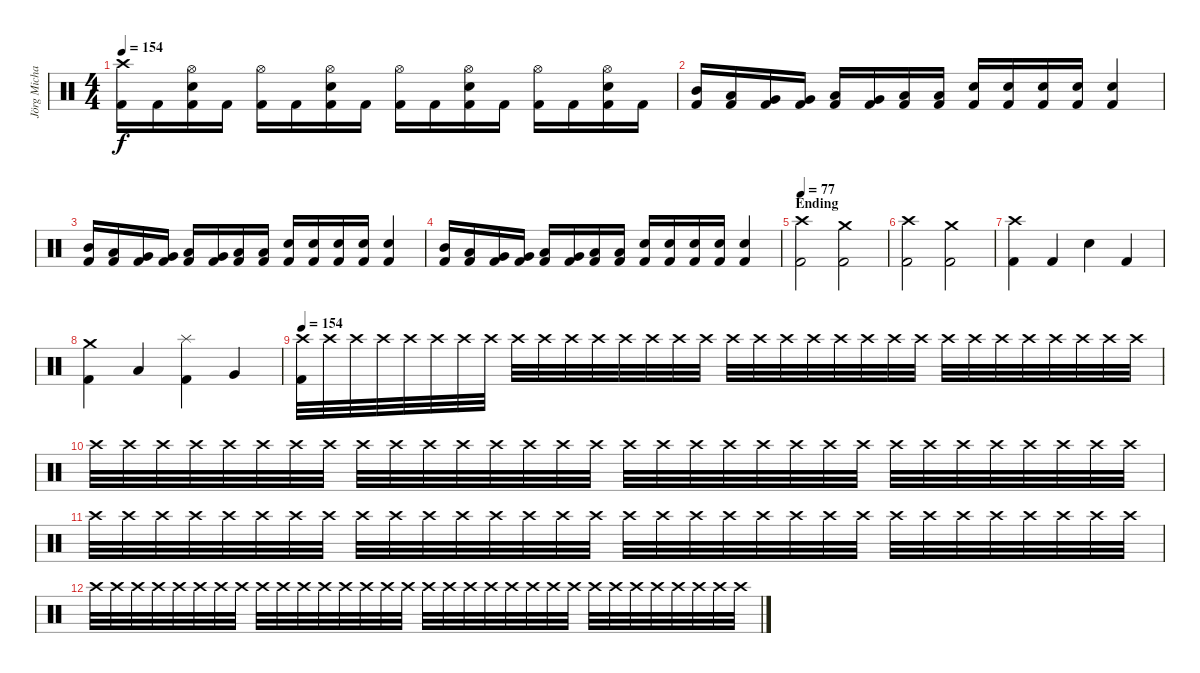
\track ("Jörg Michael - Drums" "Jörg Micha") {instrument percussion}
\staff {score}
\articulation defaults
\ts (4 4)
\tempo 154
\clef neutral
\ks c
("Crash high (hit)" "Kick (hit) 2").16{dy f} "Kick (hit) 2".16 ("Hi-Hat (open)" "Electric Snare (hit)" "Kick (hit) 2").16 "Kick (hit) 2".16 ("Hi-Hat (open)" "Kick (hit) 2").16 "Kick (hit) 2".16 ("Hi-Hat (open)" "Electric Snare (hit)" "Kick (hit) 2").16 "Kick (hit) 2".16 ("Hi-Hat (open)" "Kick (hit) 2").16 "Kick (hit) 2".16 ("Hi-Hat (open)" "Electric Snare (hit)" "Kick (hit) 2").16 "Kick (hit) 2".16 ("Hi-Hat (open)" "Kick (hit) 2").16 "Kick (hit) 2".16 ("Hi-Hat (open)" "Electric Snare (hit)" "Kick (hit) 2").16 "Kick (hit) 2".16 |
("Mid Tom (hit)" "Kick (hit) 2").16 ("Low Tom (hit)" "Kick (hit) 2").16 ("Very Low Tom (hit)" "Kick (hit) 2").16 ("Very Low Tom (hit)" "Kick (hit) 2").16 ("Low Tom (hit)" "Kick (hit) 2").16 ("Very Low Tom (hit)" "Kick (hit) 2").16 ("Low Floor Tom (hit)" "Kick (hit) 2").16 ("Low Floor Tom (hit)" "Kick (hit) 2").16 ("Electric Snare (hit)" "Kick (hit) 2").16 ("Electric Snare (hit)" "Kick (hit) 2").16 ("Electric Snare (hit)" "Kick (hit) 2").16 ("Electric Snare (hit)" "Kick (hit) 2").16 ("Electric Snare (hit)" "Kick (hit) 2").4 |
("Mid Tom (hit)" "Kick (hit) 2").16 ("Low Tom (hit)" "Kick (hit) 2").16 ("Very Low Tom (hit)" "Kick (hit) 2").16 ("Very Low Tom (hit)" "Kick (hit) 2").16 ("Low Tom (hit)" "Kick (hit) 2").16 ("Very Low Tom (hit)" "Kick (hit) 2").16 ("Low Floor Tom (hit)" "Kick (hit) 2").16 ("Low Floor Tom (hit)" "Kick (hit) 2").16 ("Electric Snare (hit)" "Kick (hit) 2").16 ("Electric Snare (hit)" "Kick (hit) 2").16 ("Electric Snare (hit)" "Kick (hit) 2").16 ("Electric Snare (hit)" "Kick (hit) 2").16 ("Electric Snare (hit)" "Kick (hit) 2").4 |
("Mid Tom (hit)" "Kick (hit) 2").16 ("Low Tom (hit)" "Kick (hit) 2").16 ("Very Low Tom (hit)" "Kick (hit) 2").16 ("Very Low Tom (hit)" "Kick (hit) 2").16 ("Low Tom (hit)" "Kick (hit) 2").16 ("Very Low Tom (hit)" "Kick (hit) 2").16 ("Low Floor Tom (hit)" "Kick (hit) 2").16 ("Low Floor Tom (hit)" "Kick (hit) 2").16 ("Electric Snare (hit)" "Kick (hit) 2").16 ("Electric Snare (hit)" "Kick (hit) 2").16 ("Electric Snare (hit)" "Kick (hit) 2").16 ("Electric Snare (hit)" "Kick (hit) 2").16 ("Electric Snare (hit)" "Kick (hit) 2").4 |
\section ("" "Ending")
\tempo 77
("Crash high (hit)" "Kick (hit) 2").2 ("Crash medium (hit)" "Kick (hit) 2").2 |
("Crash high (hit)" "Kick (hit) 2").2 ("Crash medium (hit)" "Kick (hit) 2").2 |
("Crash high (hit)" "Kick (hit) 2").4 "Kick (hit) 2".4 "Electric Snare (hit)".4 "Kick (hit) 2".4 |
("Crash medium (hit)" "Kick (hit) 2").4 "Low Tom (hit)".4 ("Splash (hit)" "Kick (hit) 2").4 "Very Low Tom (hit)".4 |
\tempo 154
("Crash high (hit)" "Kick (hit) 2").32{volume 2} "Crash high (hit)".32{volume 14} "Crash high (hit)".32 "Crash high (hit)".32 "Crash high (hit)".32 "Crash high (hit)".32 "Crash high (hit)".32 "Crash high (hit)".32 "Crash high (hit)".32 "Crash high (hit)".32 "Crash high (hit)".32 "Crash high (hit)".32 "Crash high (hit)".32 "Crash high (hit)".32 "Crash high (hit)".32 "Crash high (hit)".32 "Crash high (hit)".32 "Crash high (hit)".32 "Crash high (hit)".32 "Crash high (hit)".32 "Crash high (hit)".32 "Crash high (hit)".32 "Crash high (hit)".32 "Crash high (hit)".32 "Crash high (hit)".32 "Crash high (hit)".32 "Crash high (hit)".32 "Crash high (hit)".32 "Crash high (hit)".32 "Crash high (hit)".32 "Crash high (hit)".32 "Crash high (hit)".32 |
"Crash high (hit)".32 "Crash high (hit)".32 "Crash high (hit)".32 "Crash high (hit)".32 "Crash high (hit)".32 "Crash high (hit)".32 "Crash high (hit)".32 "Crash high (hit)".32 "Crash high (hit)".32 "Crash high (hit)".32 "Crash high (hit)".32 "Crash high (hit)".32 "Crash high (hit)".32 "Crash high (hit)".32 "Crash high (hit)".32 "Crash high (hit)".32 "Crash high (hit)".32{volume 1} "Crash high (hit)".32 "Crash high (hit)".32 "Crash high (hit)".32 "Crash high (hit)".32 "Crash high (hit)".32 "Crash high (hit)".32 "Crash high (hit)".32 "Crash high (hit)".32 "Crash high (hit)".32 "Crash high (hit)".32 "Crash high (hit)".32 "Crash high (hit)".32 "Crash high (hit)".32 "Crash high (hit)".32 "Crash high (hit)".32 |
"Crash high (hit)".32 "Crash high (hit)".32 "Crash high (hit)".32 "Crash high (hit)".32 "Crash high (hit)".32 "Crash high (hit)".32 "Crash high (hit)".32 "Crash high (hit)".32 "Crash high (hit)".32 "Crash high (hit)".32 "Crash high (hit)".32 "Crash high (hit)".32 "Crash high (hit)".32 "Crash high (hit)".32 "Crash high (hit)".32 "Crash high (hit)".32 "Crash high (hit)".32 "Crash high (hit)".32 "Crash high (hit)".32 "Crash high (hit)".32 "Crash high (hit)".32 "Crash high (hit)".32 "Crash high (hit)".32 "Crash high (hit)".32 "Crash high (hit)".32 "Crash high (hit)".32 "Crash high (hit)".32 "Crash high (hit)".32 "Crash high (hit)".32 "Crash high (hit)".32 "Crash high (hit)".32 "Crash high (hit)".32 |
"Crash high (hit)".32 "Crash high (hit)".32 "Crash high (hit)".32 "Crash high (hit)".32 "Crash high (hit)".32 "Crash high (hit)".32 "Crash high (hit)".32 "Crash high (hit)".32 "Crash high (hit)".32 "Crash high (hit)".32 "Crash high (hit)".32 "Crash high (hit)".32 "Crash high (hit)".32 "Crash high (hit)".32 "Crash high (hit)".32 "Crash high (hit)".32 "Crash high (hit)".32 "Crash high (hit)".32 "Crash high (hit)".32 "Crash high (hit)".32 "Crash high (hit)".32 "Crash high (hit)".32 "Crash high (hit)".32 "Crash high (hit)".32 "Crash high (hit)".32 "Crash high (hit)".32 "Crash high (hit)".32 "Crash high (hit)".32 "Crash high (hit)".32 "Crash high (hit)".32 "Crash high (hit)".32 "Crash high (hit)".32
